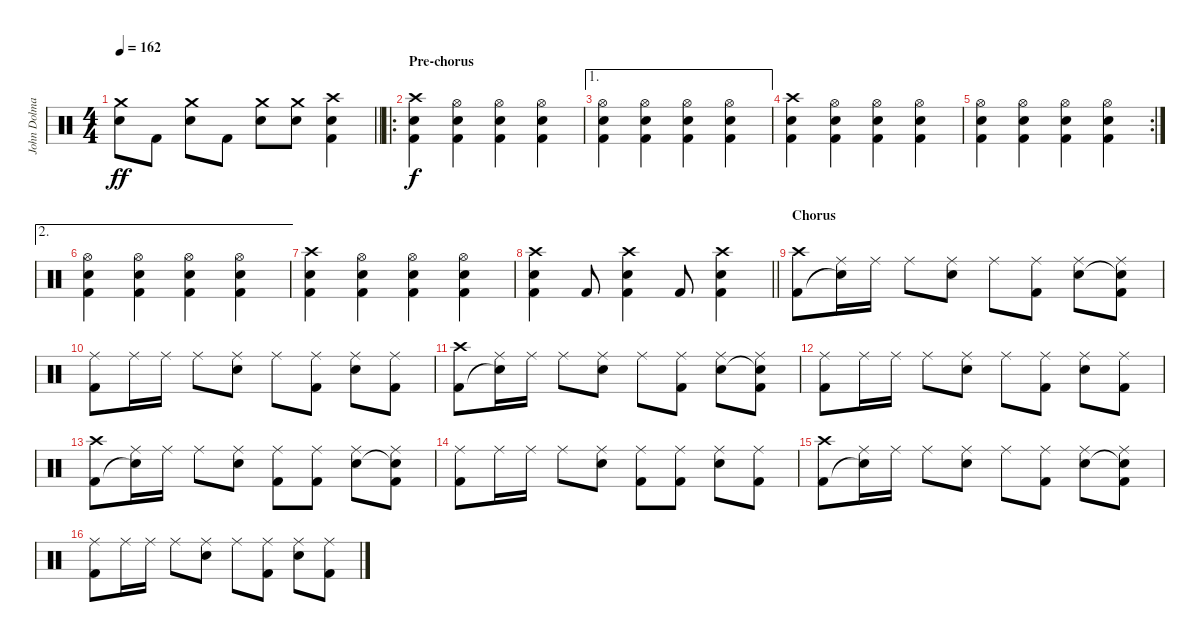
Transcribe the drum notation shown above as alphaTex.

\track ("John Dolmayan" "John Dolma") {instrument percussion}
\staff {score}
\articulation defaults
\ts (4 4)
\tempo 162
\clef neutral
\barLineRight lightlight
\ks c
("Crash medium (hit)" "Electric Snare (hit)").8{dy ff} "Kick (hit) 2".8 ("Crash medium (hit)" "Electric Snare (hit)").8 "Kick (hit) 2".8 ("Crash medium (hit)" "Electric Snare (hit)").8 ("Crash medium (hit)" "Electric Snare (hit)").8 ("Crash high (hit)" "Electric Snare (hit)" "Kick (hit) 2").4 |
\ro
\section ("" "Pre-chorus")
("Crash high (hit)" "Electric Snare (hit)" "Kick (hit) 2").4{dy f} ("Hi-Hat (open)" "Electric Snare (hit)" "Kick (hit) 2").4 ("Hi-Hat (open)" "Electric Snare (hit)" "Kick (hit) 2").4 ("Hi-Hat (open)" "Electric Snare (hit)" "Kick (hit) 2").4 |
\ae 1
("Hi-Hat (open)" "Electric Snare (hit)" "Kick (hit) 2").4 ("Hi-Hat (open)" "Electric Snare (hit)" "Kick (hit) 2").4 ("Hi-Hat (open)" "Electric Snare (hit)" "Kick (hit) 2").4 ("Hi-Hat (open)" "Electric Snare (hit)" "Kick (hit) 2").4 |
("Crash high (hit)" "Electric Snare (hit)" "Kick (hit) 2").4 ("Hi-Hat (open)" "Electric Snare (hit)" "Kick (hit) 2").4 ("Hi-Hat (open)" "Electric Snare (hit)" "Kick (hit) 2").4 ("Hi-Hat (open)" "Electric Snare (hit)" "Kick (hit) 2").4 |
\rc 2
("Hi-Hat (open)" "Electric Snare (hit)" "Kick (hit) 2").4 ("Hi-Hat (open)" "Electric Snare (hit)" "Kick (hit) 2").4 ("Hi-Hat (open)" "Electric Snare (hit)" "Kick (hit) 2").4 ("Hi-Hat (open)" "Electric Snare (hit)" "Kick (hit) 2").4 |
\ae 2
("Hi-Hat (open)" "Electric Snare (hit)" "Kick (hit) 2").4 ("Hi-Hat (open)" "Electric Snare (hit)" "Kick (hit) 2").4 ("Hi-Hat (open)" "Electric Snare (hit)" "Kick (hit) 2").4 ("Hi-Hat (open)" "Electric Snare (hit)" "Kick (hit) 2").4 |
("Crash high (hit)" "Electric Snare (hit)" "Kick (hit) 2").4 ("Hi-Hat (open)" "Electric Snare (hit)" "Kick (hit) 2").4 ("Hi-Hat (open)" "Electric Snare (hit)" "Kick (hit) 2").4 ("Hi-Hat (open)" "Electric Snare (hit)" "Kick (hit) 2").4 |
\barLineRight lightlight
("Crash high (hit)" "Electric Snare (hit)" "Kick (hit) 2").4 "Kick (hit) 2".8 ("Crash high (hit)" "Electric Snare (hit)" "Kick (hit) 2").4 "Kick (hit) 2".8 ("Crash high (hit)" "Electric Snare (hit)" "Kick (hit) 2").4 |
\section ("" "Chorus")
("Crash high (hit)" "Kick (hit) 2").8 ("Ride (middle)" "Snare (hit)"{t}).16 "Ride (middle)".16 "Ride (middle)".8 ("Ride (middle)" "Electric Snare (hit)").8 "Ride (middle)".8 ("Ride (middle)" "Kick (hit) 2").8 ("Ride (middle)" "Electric Snare (hit)").8 ("Ride (middle)" "Snare (hit)"{t} "Kick (hit) 2").8 |
("Ride (middle)" "Kick (hit) 2").8 "Ride (middle)".16 "Ride (middle)".16 "Ride (middle)".8 ("Ride (middle)" "Electric Snare (hit)").8 "Ride (middle)".8 ("Ride (middle)" "Kick (hit) 2").8 ("Ride (middle)" "Electric Snare (hit)").8 ("Ride (middle)" "Kick (hit) 2").8 |
("Crash high (hit)" "Kick (hit) 2").8 ("Ride (middle)" "Snare (hit)"{t}).16 "Ride (middle)".16 "Ride (middle)".8 ("Ride (middle)" "Electric Snare (hit)").8 "Ride (middle)".8 ("Ride (middle)" "Kick (hit) 2").8 ("Ride (middle)" "Electric Snare (hit)").8 ("Ride (middle)" "Snare (hit)"{t} "Kick (hit) 2").8 |
("Ride (middle)" "Kick (hit) 2").8 "Ride (middle)".16 "Ride (middle)".16 "Ride (middle)".8 ("Ride (middle)" "Electric Snare (hit)").8 "Ride (middle)".8 ("Ride (middle)" "Kick (hit) 2").8 ("Ride (middle)" "Electric Snare (hit)").8 ("Ride (middle)" "Kick (hit) 2").8 |
("Crash high (hit)" "Kick (hit) 2").8 ("Ride (middle)" "Snare (hit)"{t}).16 "Ride (middle)".16 "Ride (middle)".8 ("Ride (middle)" "Electric Snare (hit)").8 ("Ride (middle)" "Kick (hit) 2").8 ("Ride (middle)" "Kick (hit) 2").8 ("Ride (middle)" "Electric Snare (hit)").8 ("Ride (middle)" "Snare (hit)"{t} "Kick (hit) 2").8 |
("Ride (middle)" "Kick (hit) 2").8 "Ride (middle)".16 "Ride (middle)".16 "Ride (middle)".8 ("Ride (middle)" "Electric Snare (hit)").8 ("Ride (middle)" "Kick (hit) 2").8 ("Ride (middle)" "Kick (hit) 2").8 ("Ride (middle)" "Electric Snare (hit)").8 ("Ride (middle)" "Kick (hit) 2").8 |
("Crash high (hit)" "Kick (hit) 2").8 ("Ride (middle)" "Snare (hit)"{t}).16 "Ride (middle)".16 "Ride (middle)".8 ("Ride (middle)" "Electric Snare (hit)").8 "Ride (middle)".8 ("Ride (middle)" "Kick (hit) 2").8 ("Ride (middle)" "Electric Snare (hit)").8 ("Ride (middle)" "Snare (hit)"{t} "Kick (hit) 2").8 |
("Ride (middle)" "Kick (hit) 2").8 "Ride (middle)".16 "Ride (middle)".16 "Ride (middle)".8 ("Ride (middle)" "Electric Snare (hit)").8 "Ride (middle)".8 ("Ride (middle)" "Kick (hit) 2").8 ("Ride (middle)" "Electric Snare (hit)").8 ("Ride (middle)" "Kick (hit) 2").8
